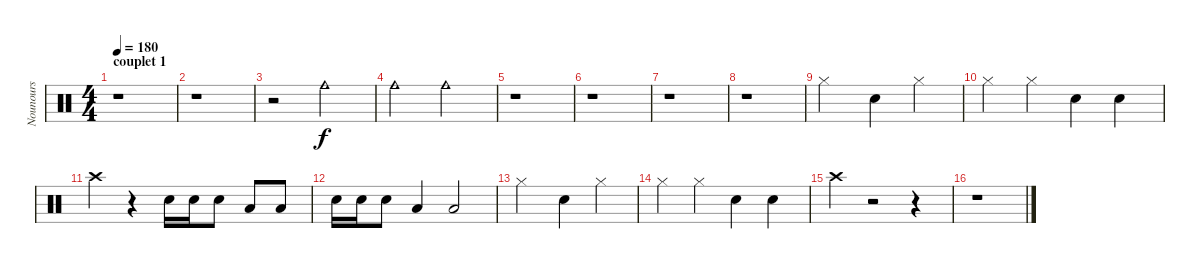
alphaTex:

\track ("Nounours" "Nounours") {instrument percussion}
\staff {score}
\articulation defaults
\ts (4 4)
\section ("" "couplet 1")
\tempo 180
\clef neutral
\ks c
r.1{dy f} |
r.1 |
r.2 "Cowbell medium (hit)".2 |
"Cowbell medium (hit)".2 "Cowbell medium (hit)".2 |
r.1 |
r.1 |
r.1 |
r.1 |
"Hi-Hat (closed)".2 "Snare (hit) 2".4 "Hi-Hat (closed)".4 |
"Hi-Hat (closed)".4 "Hi-Hat (closed)".4 "Snare (hit) 2".4 "Snare (hit) 2".4 |
"Crash high (hit)".4 r.4 "Snare (hit) 2".16 "Snare (hit) 2".16 "Snare (hit) 2".8 "Low Tom (hit)".8 "Low Tom (hit)".8 |
"Snare (hit) 2".16 "Snare (hit) 2".16 "Snare (hit) 2".8 "Low Tom (hit)".4 "Low Tom (hit)".2 |
"Hi-Hat (closed)".2 "Snare (hit) 2".4 "Hi-Hat (closed)".4 |
"Hi-Hat (closed)".4 "Hi-Hat (closed)".4 "Snare (hit) 2".4 "Snare (hit) 2".4 |
"Crash high (hit)".4 r.2 r.4 |
r.1
